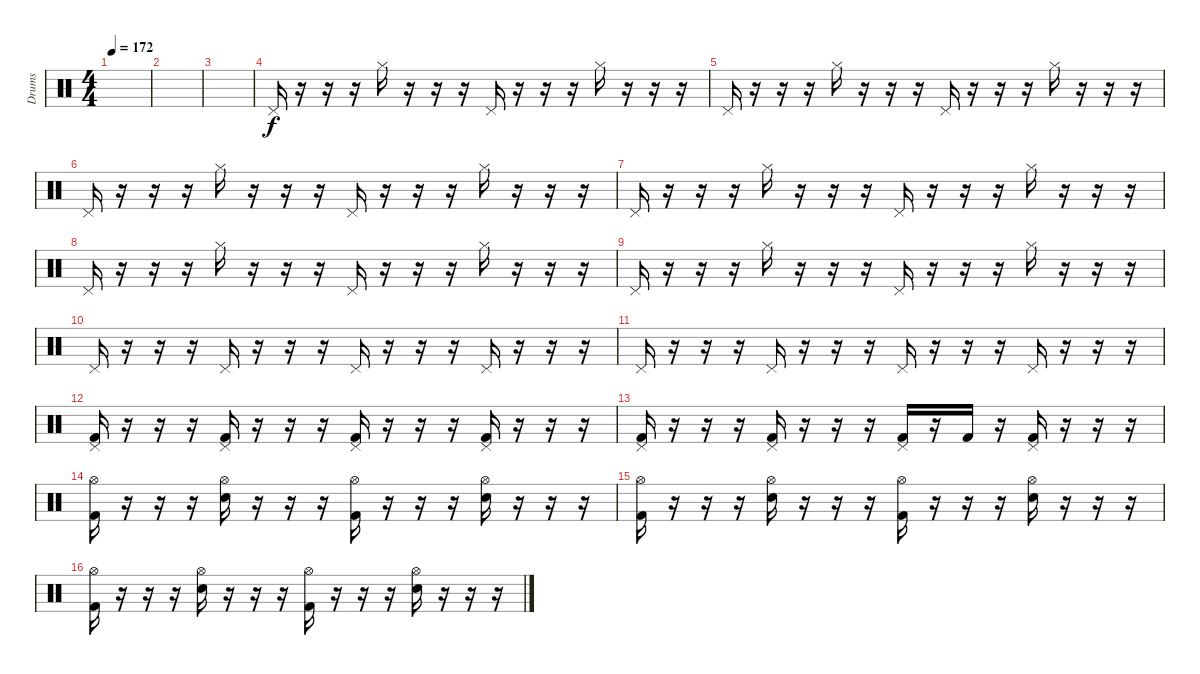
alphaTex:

\track ("Drums" "Drums") {instrument percussion}
\staff {score}
\articulation defaults
\ts (4 4)
\tempo 172
\clef neutral
\ks c
|
|
|
"Pedal Hi-Hat (hit)".16 r.16 r.16 r.16 "Hi-Hat (closed)".16 r.16 r.16 r.16 "Pedal Hi-Hat (hit)".16 r.16 r.16 r.16 "Hi-Hat (closed)".16 r.16 r.16 r.16 |
"Pedal Hi-Hat (hit)".16 r.16 r.16 r.16 "Hi-Hat (closed)".16 r.16 r.16 r.16 "Pedal Hi-Hat (hit)".16 r.16 r.16 r.16 "Hi-Hat (closed)".16 r.16 r.16 r.16 |
"Pedal Hi-Hat (hit)".16 r.16 r.16 r.16 "Hi-Hat (closed)".16 r.16 r.16 r.16 "Pedal Hi-Hat (hit)".16 r.16 r.16 r.16 "Hi-Hat (closed)".16 r.16 r.16 r.16 |
"Pedal Hi-Hat (hit)".16 r.16 r.16 r.16 "Hi-Hat (closed)".16 r.16 r.16 r.16 "Pedal Hi-Hat (hit)".16 r.16 r.16 r.16 "Hi-Hat (closed)".16 r.16 r.16 r.16 |
"Pedal Hi-Hat (hit)".16 r.16 r.16 r.16 "Hi-Hat (closed)".16 r.16 r.16 r.16 "Pedal Hi-Hat (hit)".16 r.16 r.16 r.16 "Hi-Hat (closed)".16 r.16 r.16 r.16 |
"Pedal Hi-Hat (hit)".16 r.16 r.16 r.16 "Hi-Hat (closed)".16 r.16 r.16 r.16 "Pedal Hi-Hat (hit)".16 r.16 r.16 r.16 "Hi-Hat (closed)".16 r.16 r.16 r.16 |
"Pedal Hi-Hat (hit)".16 r.16 r.16 r.16 "Pedal Hi-Hat (hit)".16 r.16 r.16 r.16 "Pedal Hi-Hat (hit)".16 r.16 r.16 r.16 "Pedal Hi-Hat (hit)".16 r.16 r.16 r.16 |
"Pedal Hi-Hat (hit)".16 r.16 r.16 r.16 "Pedal Hi-Hat (hit)".16 r.16 r.16 r.16 "Pedal Hi-Hat (hit)".16 r.16 r.16 r.16 "Pedal Hi-Hat (hit)".16 r.16 r.16 r.16 |
("Pedal Hi-Hat (hit)" "Kick (hit) 2").16 r.16 r.16 r.16 ("Pedal Hi-Hat (hit)" "Kick (hit) 2").16 r.16 r.16 r.16 ("Pedal Hi-Hat (hit)" "Kick (hit) 2").16 r.16 r.16 r.16 ("Pedal Hi-Hat (hit)" "Kick (hit) 2").16 r.16 r.16 r.16 |
("Pedal Hi-Hat (hit)" "Kick (hit) 2").16 r.16 r.16 r.16 ("Pedal Hi-Hat (hit)" "Kick (hit) 2").16 r.16 r.16 r.16 ("Pedal Hi-Hat (hit)" "Kick (hit) 2").16 r.16 "Kick (hit) 2".16 r.16 ("Pedal Hi-Hat (hit)" "Kick (hit) 2").16 r.16 r.16 r.16 |
("Hi-Hat (open)" "Kick (hit) 2").16 r.16 r.16 r.16 ("Hi-Hat (open)" "Electric Snare (hit)").16 r.16 r.16 r.16 ("Hi-Hat (open)" "Kick (hit) 2").16 r.16 r.16 r.16 ("Hi-Hat (open)" "Electric Snare (hit)").16 r.16 r.16 r.16 |
("Hi-Hat (open)" "Kick (hit) 2").16 r.16 r.16 r.16 ("Hi-Hat (open)" "Electric Snare (hit)").16 r.16 r.16 r.16 ("Hi-Hat (open)" "Kick (hit) 2").16 r.16 r.16 r.16 ("Hi-Hat (open)" "Electric Snare (hit)").16 r.16 r.16 r.16 |
("Hi-Hat (open)" "Kick (hit) 2").16 r.16 r.16 r.16 ("Hi-Hat (open)" "Electric Snare (hit)").16 r.16 r.16 r.16 ("Hi-Hat (open)" "Kick (hit) 2").16 r.16 r.16 r.16 ("Hi-Hat (open)" "Electric Snare (hit)").16 r.16 r.16 r.16
